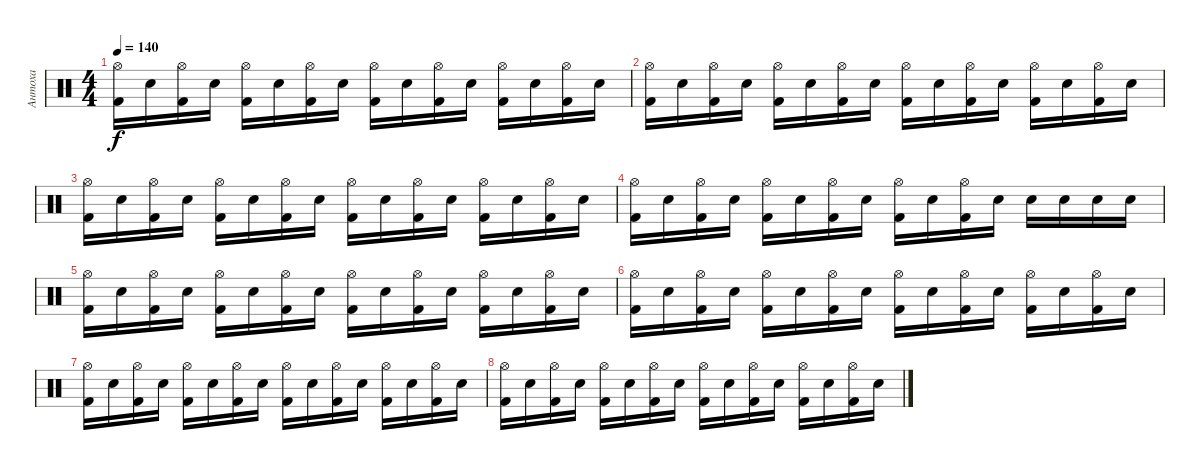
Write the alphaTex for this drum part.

\track ("Антоха" "Антоха") {instrument percussion}
\staff {score}
\articulation defaults
\ts (4 4)
\tempo 140
\clef neutral
\ks c
("Hi-Hat (open)" "Kick (hit) 2").16{dy f} "Electric Snare (hit)".16 ("Hi-Hat (open)" "Kick (hit) 2").16 "Electric Snare (hit)".16 ("Hi-Hat (open)" "Kick (hit) 2").16 "Electric Snare (hit)".16 ("Hi-Hat (open)" "Kick (hit) 2").16 "Electric Snare (hit)".16 ("Hi-Hat (open)" "Kick (hit) 2").16 "Electric Snare (hit)".16 ("Hi-Hat (open)" "Kick (hit) 2").16 "Electric Snare (hit)".16 ("Hi-Hat (open)" "Kick (hit) 2").16 "Electric Snare (hit)".16 ("Hi-Hat (open)" "Kick (hit) 2").16 "Electric Snare (hit)".16 |
("Hi-Hat (open)" "Kick (hit) 2").16 "Electric Snare (hit)".16 ("Hi-Hat (open)" "Kick (hit) 2").16 "Electric Snare (hit)".16 ("Hi-Hat (open)" "Kick (hit) 2").16 "Electric Snare (hit)".16 ("Hi-Hat (open)" "Kick (hit) 2").16 "Electric Snare (hit)".16 ("Hi-Hat (open)" "Kick (hit) 2").16 "Electric Snare (hit)".16 ("Hi-Hat (open)" "Kick (hit) 2").16 "Electric Snare (hit)".16 ("Hi-Hat (open)" "Kick (hit) 2").16 "Electric Snare (hit)".16 ("Hi-Hat (open)" "Kick (hit) 2").16 "Electric Snare (hit)".16 |
("Hi-Hat (open)" "Kick (hit) 2").16 "Electric Snare (hit)".16 ("Hi-Hat (open)" "Kick (hit) 2").16 "Electric Snare (hit)".16 ("Hi-Hat (open)" "Kick (hit) 2").16 "Electric Snare (hit)".16 ("Hi-Hat (open)" "Kick (hit) 2").16 "Electric Snare (hit)".16 ("Hi-Hat (open)" "Kick (hit) 2").16 "Electric Snare (hit)".16 ("Hi-Hat (open)" "Kick (hit) 2").16 "Electric Snare (hit)".16 ("Hi-Hat (open)" "Kick (hit) 2").16 "Electric Snare (hit)".16 ("Hi-Hat (open)" "Kick (hit) 2").16 "Electric Snare (hit)".16 |
("Hi-Hat (open)" "Kick (hit) 2").16 "Electric Snare (hit)".16 ("Hi-Hat (open)" "Kick (hit) 2").16 "Electric Snare (hit)".16 ("Hi-Hat (open)" "Kick (hit) 2").16 "Electric Snare (hit)".16 ("Hi-Hat (open)" "Kick (hit) 2").16 "Electric Snare (hit)".16 ("Hi-Hat (open)" "Kick (hit) 2").16 "Electric Snare (hit)".16 ("Hi-Hat (open)" "Kick (hit) 2").16 "Electric Snare (hit)".16 "Electric Snare (hit)".16 "Electric Snare (hit)".16 "Electric Snare (hit)".16 "Electric Snare (hit)".16 |
("Hi-Hat (open)" "Kick (hit) 2").16 "Electric Snare (hit)".16 ("Hi-Hat (open)" "Kick (hit) 2").16 "Electric Snare (hit)".16 ("Hi-Hat (open)" "Kick (hit) 2").16 "Electric Snare (hit)".16 ("Hi-Hat (open)" "Kick (hit) 2").16 "Electric Snare (hit)".16 ("Hi-Hat (open)" "Kick (hit) 2").16 "Electric Snare (hit)".16 ("Hi-Hat (open)" "Kick (hit) 2").16 "Electric Snare (hit)".16 ("Hi-Hat (open)" "Kick (hit) 2").16 "Electric Snare (hit)".16 ("Hi-Hat (open)" "Kick (hit) 2").16 "Electric Snare (hit)".16 |
("Hi-Hat (open)" "Kick (hit) 2").16 "Electric Snare (hit)".16 ("Hi-Hat (open)" "Kick (hit) 2").16 "Electric Snare (hit)".16 ("Hi-Hat (open)" "Kick (hit) 2").16 "Electric Snare (hit)".16 ("Hi-Hat (open)" "Kick (hit) 2").16 "Electric Snare (hit)".16 ("Hi-Hat (open)" "Kick (hit) 2").16 "Electric Snare (hit)".16 ("Hi-Hat (open)" "Kick (hit) 2").16 "Electric Snare (hit)".16 ("Hi-Hat (open)" "Kick (hit) 2").16 "Electric Snare (hit)".16 ("Hi-Hat (open)" "Kick (hit) 2").16 "Electric Snare (hit)".16 |
("Hi-Hat (open)" "Kick (hit) 2").16 "Electric Snare (hit)".16 ("Hi-Hat (open)" "Kick (hit) 2").16 "Electric Snare (hit)".16 ("Hi-Hat (open)" "Kick (hit) 2").16 "Electric Snare (hit)".16 ("Hi-Hat (open)" "Kick (hit) 2").16 "Electric Snare (hit)".16 ("Hi-Hat (open)" "Kick (hit) 2").16 "Electric Snare (hit)".16 ("Hi-Hat (open)" "Kick (hit) 2").16 "Electric Snare (hit)".16 ("Hi-Hat (open)" "Kick (hit) 2").16 "Electric Snare (hit)".16 ("Hi-Hat (open)" "Kick (hit) 2").16 "Electric Snare (hit)".16 |
("Hi-Hat (open)" "Kick (hit) 2").16 "Electric Snare (hit)".16 ("Hi-Hat (open)" "Kick (hit) 2").16 "Electric Snare (hit)".16 ("Hi-Hat (open)" "Kick (hit) 2").16 "Electric Snare (hit)".16 ("Hi-Hat (open)" "Kick (hit) 2").16 "Electric Snare (hit)".16 ("Hi-Hat (open)" "Kick (hit) 2").16 "Electric Snare (hit)".16 ("Hi-Hat (open)" "Kick (hit) 2").16 "Electric Snare (hit)".16 ("Hi-Hat (open)" "Kick (hit) 2").16 "Electric Snare (hit)".16 ("Hi-Hat (open)" "Kick (hit) 2").16 "Electric Snare (hit)".16
